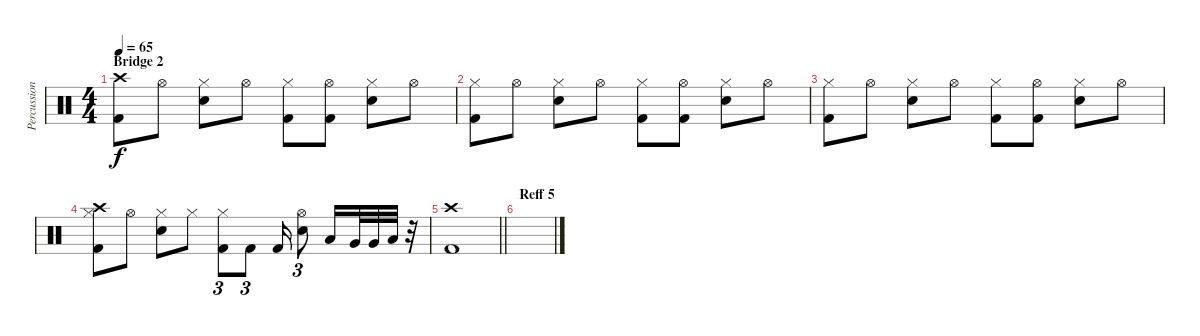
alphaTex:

\track ("Percussion" "Percussion") {instrument percussion}
\staff {score}
\articulation defaults
\ts (4 4)
\section ("" "Bridge 2")
\tempo 65
\clef neutral
\ks c
("Crash high (hit)" "Kick (hit) 2").8{dy f} "Hi-Hat (open)".8 ("Hi-Hat (closed)" "Electric Snare (hit)").8 "Hi-Hat (open)".8 ("Hi-Hat (closed)" "Kick (hit) 2").8 ("Hi-Hat (open)" "Kick (hit) 2").8 ("Hi-Hat (closed)" "Electric Snare (hit)").8 "Hi-Hat (open)".8 |
("Hi-Hat (closed)" "Kick (hit) 2").8 "Hi-Hat (open)".8 ("Hi-Hat (closed)" "Electric Snare (hit)").8 "Hi-Hat (open)".8 ("Hi-Hat (closed)" "Kick (hit) 2").8 ("Hi-Hat (open)" "Kick (hit) 2").8 ("Hi-Hat (closed)" "Electric Snare (hit)").8 "Hi-Hat (open)".8 |
("Hi-Hat (closed)" "Kick (hit) 2").8 "Hi-Hat (open)".8 ("Hi-Hat (closed)" "Electric Snare (hit)").8 "Hi-Hat (open)".8 ("Hi-Hat (closed)" "Kick (hit) 2").8 ("Hi-Hat (open)" "Kick (hit) 2").8 ("Hi-Hat (closed)" "Electric Snare (hit)").8 "Hi-Hat (open)".8 |
("Hi-Hat (closed)" "Crash high (hit)" "Kick (hit) 2").8 "Hi-Hat (open)".8 ("Hi-Hat (closed)" "Electric Snare (hit)").8 "Hi-Hat (closed)".8 ("Hi-Hat (closed)" "Kick (hit) 2").8{tu (3 2)} "Kick (hit) 2".8{tu (3 2)} "Kick (hit) 2".16 ("Hi-Hat (open)" "Electric Snare (hit)").8{tu (3 2)} "Low Tom (hit)".16 "Very Low Tom (hit)".32 "Very Low Tom (hit)".32 "Low Floor Tom (hit)".32 r.32 |
\barLineRight lightlight
("Crash high (hit)" "Kick (hit) 2").1 |
\section ("" "Reff 5")
